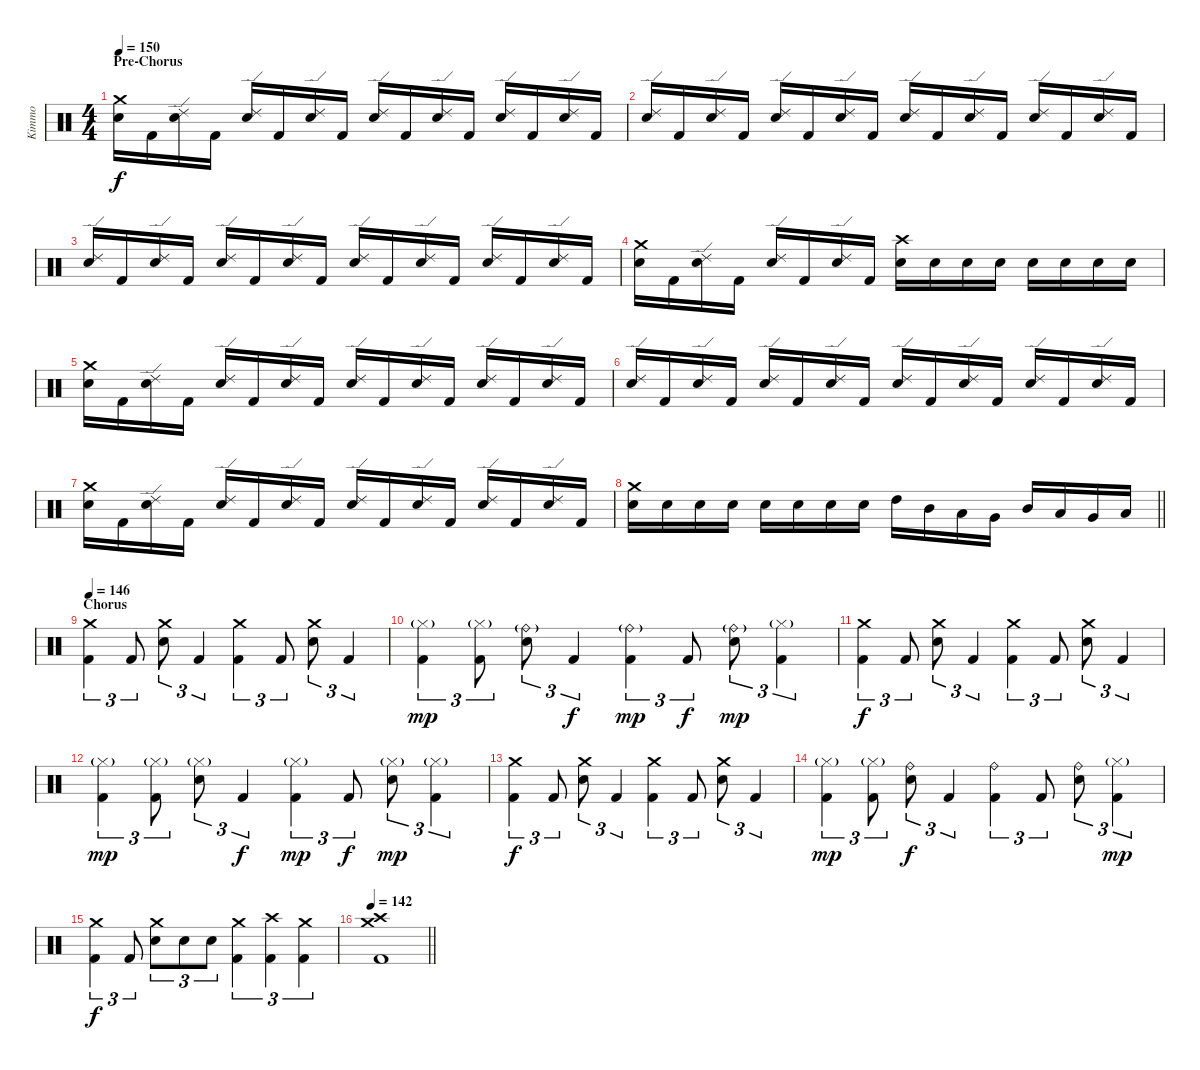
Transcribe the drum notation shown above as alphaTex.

\track ("Kimmo" "Kimmo") {instrument percussion}
\staff {score}
\articulation defaults
\ts (4 4)
\section ("" "Pre-Chorus")
\tempo 150
\clef neutral
\ks c
("Snare (hit) 2" "Crash medium (hit)").16{dy f} "Kick (hit) 2".16 ("Snare (hit) 2" "Ride (edge) 2").16 "Kick (hit) 2".16 ("Snare (hit) 2" "Ride (edge) 2").16 "Kick (hit) 2".16 ("Snare (hit) 2" "Ride (edge) 2").16 "Kick (hit) 2".16 ("Snare (hit) 2" "Ride (edge) 2").16 "Kick (hit) 2".16 ("Snare (hit) 2" "Ride (edge) 2").16 "Kick (hit) 2".16 ("Snare (hit) 2" "Ride (edge) 2").16 "Kick (hit) 2".16 ("Snare (hit) 2" "Ride (edge) 2").16 "Kick (hit) 2".16 |
("Snare (hit) 2" "Ride (edge) 2").16 "Kick (hit) 2".16 ("Snare (hit) 2" "Ride (edge) 2").16 "Kick (hit) 2".16 ("Snare (hit) 2" "Ride (edge) 2").16 "Kick (hit) 2".16 ("Snare (hit) 2" "Ride (edge) 2").16 "Kick (hit) 2".16 ("Snare (hit) 2" "Ride (edge) 2").16 "Kick (hit) 2".16 ("Snare (hit) 2" "Ride (edge) 2").16 "Kick (hit) 2".16 ("Snare (hit) 2" "Ride (edge) 2").16 "Kick (hit) 2".16 ("Snare (hit) 2" "Ride (edge) 2").16 "Kick (hit) 2".16 |
("Snare (hit) 2" "Ride (edge) 2").16 "Kick (hit) 2".16 ("Snare (hit) 2" "Ride (edge) 2").16 "Kick (hit) 2".16 ("Snare (hit) 2" "Ride (edge) 2").16 "Kick (hit) 2".16 ("Snare (hit) 2" "Ride (edge) 2").16 "Kick (hit) 2".16 ("Snare (hit) 2" "Ride (edge) 2").16 "Kick (hit) 2".16 ("Snare (hit) 2" "Ride (edge) 2").16 "Kick (hit) 2".16 ("Snare (hit) 2" "Ride (edge) 2").16 "Kick (hit) 2".16 ("Snare (hit) 2" "Ride (edge) 2").16 "Kick (hit) 2".16 |
("Snare (hit) 2" "Crash medium (hit)").16 "Kick (hit) 2".16 ("Snare (hit) 2" "Ride (edge) 2").16 "Kick (hit) 2".16 ("Snare (hit) 2" "Ride (edge) 2").16 "Kick (hit) 2".16 ("Snare (hit) 2" "Ride (edge) 2").16 "Kick (hit) 2".16 ("Snare (hit) 2" "Crash high (hit)").16 "Snare (hit) 2".16 "Snare (hit) 2".16 "Snare (hit) 2".16 "Snare (hit) 2".16 "Snare (hit) 2".16 "Snare (hit) 2".16 "Snare (hit) 2".16 |
("Snare (hit) 2" "Crash medium (hit)").16 "Kick (hit) 2".16 ("Snare (hit) 2" "Ride (edge) 2").16 "Kick (hit) 2".16 ("Snare (hit) 2" "Ride (edge) 2").16 "Kick (hit) 2".16 ("Snare (hit) 2" "Ride (edge) 2").16 "Kick (hit) 2".16 ("Snare (hit) 2" "Ride (edge) 2").16 "Kick (hit) 2".16 ("Snare (hit) 2" "Ride (edge) 2").16 "Kick (hit) 2".16 ("Snare (hit) 2" "Ride (edge) 2").16 "Kick (hit) 2".16 ("Snare (hit) 2" "Ride (edge) 2").16 "Kick (hit) 2".16 |
("Snare (hit) 2" "Ride (edge) 2").16 "Kick (hit) 2".16 ("Snare (hit) 2" "Ride (edge) 2").16 "Kick (hit) 2".16 ("Snare (hit) 2" "Ride (edge) 2").16 "Kick (hit) 2".16 ("Snare (hit) 2" "Ride (edge) 2").16 "Kick (hit) 2".16 ("Snare (hit) 2" "Ride (edge) 2").16 "Kick (hit) 2".16 ("Snare (hit) 2" "Ride (edge) 2").16 "Kick (hit) 2".16 ("Snare (hit) 2" "Ride (edge) 2").16 "Kick (hit) 2".16 ("Snare (hit) 2" "Ride (edge) 2").16 "Kick (hit) 2".16 |
("Snare (hit) 2" "Crash medium (hit)").16 "Kick (hit) 2".16 ("Snare (hit) 2" "Ride (edge) 2").16 "Kick (hit) 2".16 ("Snare (hit) 2" "Ride (edge) 2").16 "Kick (hit) 2".16 ("Snare (hit) 2" "Ride (edge) 2").16 "Kick (hit) 2".16 ("Snare (hit) 2" "Ride (edge) 2").16 "Kick (hit) 2".16 ("Snare (hit) 2" "Ride (edge) 2").16 "Kick (hit) 2".16 ("Snare (hit) 2" "Ride (edge) 2").16 "Kick (hit) 2".16 ("Snare (hit) 2" "Ride (edge) 2").16 "Kick (hit) 2".16 |
\barLineRight lightlight
("Snare (hit) 2" "Crash medium (hit)").16 "Snare (hit) 2".16 "Snare (hit) 2".16 "Snare (hit) 2".16 "Snare (hit) 2".16 "Snare (hit) 2".16 "Snare (hit) 2".16 "Snare (hit) 2".16 "High Tom (hit)".16 "Mid Tom (hit)".16 "Low Tom (hit)".16 "Very Low Tom (hit)".16 "Mid Tom (hit)".16 "Low Tom (hit)".16 "Very Low Tom (hit)".16 "Low Floor Tom (hit)".16 |
\section ("" "Chorus")
\tempo 146
("Kick (hit) 2" "Crash medium (hit)").4{tu (3 2)} "Kick (hit) 2".8{tu (3 2)} ("Snare (hit) 2" "Crash medium (hit)").8{tu (3 2)} "Kick (hit) 2".4{tu (3 2)} ("Kick (hit) 2" "Crash medium (hit)").4{tu (3 2)} "Kick (hit) 2".8{tu (3 2)} ("Snare (hit) 2" "Crash medium (hit)").8{tu (3 2)} "Kick (hit) 2".4{tu (3 2)} |
("Kick (hit) 2" "Hi-Hat (closed)"{g}).4{tu (3 2) dy mp} ("Kick (hit) 2" "Hi-Hat (closed)"{g}).8{tu (3 2)} ("Snare (hit) 2" "Ride (bell)"{g}).8{tu (3 2)} "Kick (hit) 2".4{tu (3 2) dy f} ("Kick (hit) 2" "Ride (bell)"{g}).4{tu (3 2) dy mp} "Kick (hit) 2".8{tu (3 2) dy f} ("Snare (hit) 2" "Ride (bell)"{g}).8{tu (3 2) dy mp} ("Kick (hit) 2" "Hi-Hat (closed)"{g}).4{tu (3 2)} |
("Kick (hit) 2" "Crash medium (hit)").4{tu (3 2) dy f} "Kick (hit) 2".8{tu (3 2)} ("Snare (hit) 2" "Crash medium (hit)").8{tu (3 2)} "Kick (hit) 2".4{tu (3 2)} ("Kick (hit) 2" "Crash medium (hit)").4{tu (3 2)} "Kick (hit) 2".8{tu (3 2)} ("Snare (hit) 2" "Crash medium (hit)").8{tu (3 2)} "Kick (hit) 2".4{tu (3 2)} |
("Kick (hit) 2" "Hi-Hat (closed)"{g}).4{tu (3 2) dy mp} ("Kick (hit) 2" "Hi-Hat (closed)"{g}).8{tu (3 2)} ("Snare (hit) 2" "Hi-Hat (closed)"{g}).8{tu (3 2)} "Kick (hit) 2".4{tu (3 2) dy f} ("Kick (hit) 2" "Hi-Hat (closed)"{g}).4{tu (3 2) dy mp} "Kick (hit) 2".8{tu (3 2) dy f} ("Snare (hit) 2" "Hi-Hat (closed)"{g}).8{tu (3 2) dy mp} ("Kick (hit) 2" "Hi-Hat (closed)"{g}).4{tu (3 2)} |
("Kick (hit) 2" "Crash medium (hit)").4{tu (3 2) dy f} "Kick (hit) 2".8{tu (3 2)} ("Snare (hit) 2" "Crash medium (hit)").8{tu (3 2)} "Kick (hit) 2".4{tu (3 2)} ("Kick (hit) 2" "Crash medium (hit)").4{tu (3 2)} "Kick (hit) 2".8{tu (3 2)} ("Snare (hit) 2" "Crash medium (hit)").8{tu (3 2)} "Kick (hit) 2".4{tu (3 2)} |
("Kick (hit) 2" "Hi-Hat (closed)"{g}).4{tu (3 2) dy mp} ("Kick (hit) 2" "Hi-Hat (closed)"{g}).8{tu (3 2)} ("Snare (hit) 2" "Ride (bell)").8{tu (3 2) dy f} "Kick (hit) 2".4{tu (3 2)} ("Kick (hit) 2" "Ride (bell)").4{tu (3 2)} "Kick (hit) 2".8{tu (3 2)} ("Snare (hit) 2" "Ride (bell)").8{tu (3 2)} ("Kick (hit) 2" "Hi-Hat (closed)"{g}).4{tu (3 2) dy mp} |
("Kick (hit) 2" "Crash medium (hit)").4{tu (3 2) dy f} "Kick (hit) 2".8{tu (3 2)} ("Snare (hit) 2" "Crash medium (hit)").8{tu (3 2)} "Snare (hit) 2".8{tu (3 2)} "Snare (hit) 2".8{tu (3 2)} ("Kick (hit) 2" "Crash medium (hit)").4{tu (3 2)} ("Kick (hit) 2" "Crash high (hit)").4{tu (3 2)} ("Kick (hit) 2" "Crash medium (hit)").4{tu (3 2)} |
\tempo 142
\barLineRight lightlight
("Kick (hit) 2" "Crash medium (hit)" "Crash high (hit)").1
